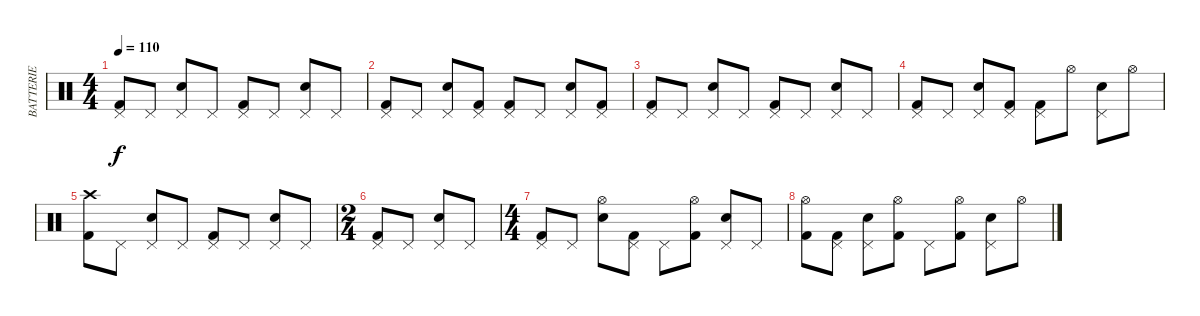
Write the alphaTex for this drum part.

\track ("BATTERIE" "BATTERIE") {instrument percussion}
\staff {score}
\articulation defaults
\ts (4 4)
\tempo 110
\clef neutral
\ks c
("Pedal Hi-Hat (hit)" "Kick (hit) 2").8{dy f volume 8} "Pedal Hi-Hat (hit)".8 ("Pedal Hi-Hat (hit)" "Snare (hit) 2").8 "Pedal Hi-Hat (hit)".8 ("Pedal Hi-Hat (hit)" "Kick (hit) 2").8 "Pedal Hi-Hat (hit)".8 ("Pedal Hi-Hat (hit)" "Snare (hit) 2").8 "Pedal Hi-Hat (hit)".8 |
("Pedal Hi-Hat (hit)" "Kick (hit) 2").8{volume 7} "Pedal Hi-Hat (hit)".8 ("Pedal Hi-Hat (hit)" "Snare (hit) 2").8 ("Pedal Hi-Hat (hit)" "Kick (hit) 2").8 ("Pedal Hi-Hat (hit)" "Kick (hit) 2").8 "Pedal Hi-Hat (hit)".8 ("Pedal Hi-Hat (hit)" "Snare (hit) 2").8 ("Pedal Hi-Hat (hit)" "Kick (hit) 2").8 |
("Pedal Hi-Hat (hit)" "Kick (hit) 2").8{volume 6} "Pedal Hi-Hat (hit)".8 ("Pedal Hi-Hat (hit)" "Snare (hit) 2").8 "Pedal Hi-Hat (hit)".8 ("Pedal Hi-Hat (hit)" "Kick (hit) 2").8 "Pedal Hi-Hat (hit)".8 ("Pedal Hi-Hat (hit)" "Snare (hit) 2").8 "Pedal Hi-Hat (hit)".8 |
("Pedal Hi-Hat (hit)" "Kick (hit) 2").8{volume 5} "Pedal Hi-Hat (hit)".8 ("Pedal Hi-Hat (hit)" "Snare (hit) 2").8 ("Pedal Hi-Hat (hit)" "Kick (hit) 2").8 ("Pedal Hi-Hat (hit)" "Kick (hit) 2").8 "Hi-Hat (open)".8 ("Pedal Hi-Hat (hit)" "Snare (hit) 2").8 "Hi-Hat (open)".8 |
("Crash high (hit)" "Kick (hit) 2").8{volume 4} "Pedal Hi-Hat (hit)".8 ("Pedal Hi-Hat (hit)" "Snare (hit) 2").8 "Pedal Hi-Hat (hit)".8 ("Pedal Hi-Hat (hit)" "Kick (hit) 2").8 "Pedal Hi-Hat (hit)".8 ("Pedal Hi-Hat (hit)" "Snare (hit) 2").8 "Pedal Hi-Hat (hit)".8 |
\ts (2 4)
("Pedal Hi-Hat (hit)" "Kick (hit) 2").8{volume 3} "Pedal Hi-Hat (hit)".8 ("Pedal Hi-Hat (hit)" "Snare (hit) 2").8 "Pedal Hi-Hat (hit)".8 |
\ts (4 4)
("Pedal Hi-Hat (hit)" "Kick (hit) 2").8{volume 2} "Pedal Hi-Hat (hit)".8 ("Hi-Hat (open)" "Snare (hit) 2").8 ("Pedal Hi-Hat (hit)" "Kick (hit) 2").8 "Pedal Hi-Hat (hit)".8 ("Hi-Hat (open)" "Kick (hit) 2").8 ("Pedal Hi-Hat (hit)" "Snare (hit) 2").8 "Pedal Hi-Hat (hit)".8 |
("Hi-Hat (open)" "Kick (hit) 2").8{volume 1} ("Pedal Hi-Hat (hit)" "Kick (hit) 2").8 ("Pedal Hi-Hat (hit)" "Snare (hit) 2").8 ("Hi-Hat (open)" "Kick (hit) 2").8 "Pedal Hi-Hat (hit)".8 ("Hi-Hat (open)" "Kick (hit) 2").8 ("Pedal Hi-Hat (hit)" "Snare (hit) 2").8 "Hi-Hat (open)".8
